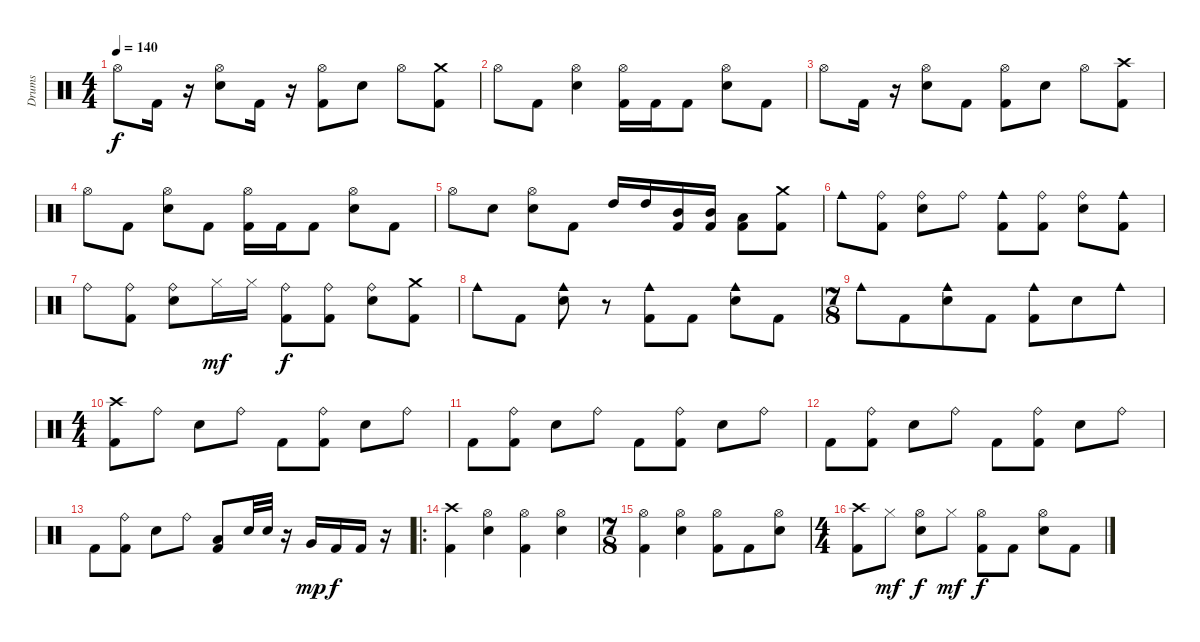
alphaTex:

\track ("Drums" "Drums") {instrument percussion}
\staff {score}
\articulation defaults
\ts (4 4)
\tempo 140
\clef neutral
\ks c "Hi-Hat (open)".8{dy f} "Kick (hit) 2".16
r.16 ("Electric Snare (hit)" "Hi-Hat (open)").8 "Kick (hit) 2".16 r.16 ("Hi-Hat (open)" "Kick (hit) 2").8 "Electric Snare (hit)".8 "Hi-Hat (open)".8 ("Crash medium (hit)" "Kick (hit) 2").8 |
"Hi-Hat (open)".8 "Kick (hit) 2".8 ("Electric Snare (hit)" "Hi-Hat (open)").4 ("Kick (hit) 2" "Hi-Hat (open)").16 "Kick (hit) 2".16 "Kick (hit) 2".8 ("Hi-Hat (open)" "Electric Snare (hit)").8 "Kick (hit) 2".8 |
"Hi-Hat (open)".8 "Kick (hit) 2".16 r.16 ("Electric Snare (hit)" "Hi-Hat (open)").8 "Kick (hit) 2".8 ("Hi-Hat (open)" "Kick (hit) 2").8 "Electric Snare (hit)".8 "Hi-Hat (open)".8 ("Crash high (hit)" "Kick (hit) 2").8 |
"Hi-Hat (open)".8 "Kick (hit) 2".8 ("Electric Snare (hit)" "Hi-Hat (open)").8 "Kick (hit) 2".8 ("Kick (hit) 2" "Hi-Hat (open)").16 "Kick (hit) 2".16 "Kick (hit) 2".8 ("Hi-Hat (open)" "Electric Snare (hit)").8 "Kick (hit) 2".8 |
"Hi-Hat (open)".8 "Electric Snare (hit)".8 ("Electric Snare (hit)" "Hi-Hat (open)").8 "Kick (hit) 2".8 "High Tom (hit)".16 "High Tom (hit)".16 ("Mid Tom (hit)" "Kick (hit) 2").16 ("Mid Tom (hit)" "Kick (hit) 2").16 ("Low Tom (hit)" "Kick (hit) 2").8 ("Crash medium (hit)" "Kick (hit) 2").8 |
"Cowbell medium (hit)".8 ("Kick (hit) 2" "Ride (bell)").8 ("Electric Snare (hit)" "Ride (bell)").8 "Ride (bell)".8 ("Kick (hit) 2" "Cowbell medium (hit)").8 ("Kick (hit) 2" "Ride (bell)").8 ("Electric Snare (hit)" "Ride (bell)").8 ("Kick (hit) 2" "Cowbell medium (hit)").8 |
"Ride (bell)".8 ("Kick (hit) 2" "Ride (bell)").8 ("Electric Snare (hit)" "Ride (bell)").8 "Hi-Hat (closed)".16{dy mf} "Hi-Hat (closed)".16 ("Kick (hit) 2" "Ride (bell)").8{dy f} ("Kick (hit) 2" "Ride (bell)").8 ("Electric Snare (hit)" "Ride (bell)").8 ("Kick (hit) 2" "Crash medium (hit)").8 |
"Cowbell medium (hit)".8 "Kick (hit) 2".8 ("Electric Snare (hit)" "Cowbell medium (hit)").8 r.8 ("Kick (hit) 2" "Cowbell medium (hit)").8 "Kick (hit) 2".8 ("Electric Snare (hit)" "Cowbell medium (hit)").8 "Kick (hit) 2".8 |
\ts (7 8)
"Cowbell medium (hit)".8 "Kick (hit) 2".8 ("Electric Snare (hit)" "Cowbell medium (hit)").8 "Kick (hit) 2".8 ("Kick (hit) 2" "Cowbell medium (hit)").8 "Electric Snare (hit)".8 "Cowbell medium (hit)".8 |
\ts (4 4)
("Kick (hit) 2" "Crash high (hit)").8 "Ride (bell)".8 "Electric Snare (hit)".8 "Ride (bell)".8 "Kick (hit) 2".8 ("Ride (bell)" "Kick (hit) 2").8 "Electric Snare (hit)".8 "Ride (bell)".8 |
"Kick (hit) 2".8 ("Ride (bell)" "Kick (hit) 2").8 "Electric Snare (hit)".8 "Ride (bell)".8 "Kick (hit) 2".8 ("Ride (bell)" "Kick (hit) 2").8 "Electric Snare (hit)".8 "Ride (bell)".8 |
"Kick (hit) 2".8 ("Kick (hit) 2" "Ride (bell)").8 "Electric Snare (hit)".8 "Ride (bell)".8 "Kick (hit) 2".8 ("Ride (bell)" "Kick (hit) 2").8 "Electric Snare (hit)".8 "Ride (bell)".8 |
"Kick (hit) 2".8 ("Kick (hit) 2" "Ride (bell)").8 "Electric Snare (hit)".8 "Ride (bell)".8 ("Low Tom (hit)" "Kick (hit) 2").8 "Electric Snare (hit)".32 "Electric Snare (hit)".32 r.16 "Very Low Tom (hit)".16{dy mp} "Kick (hit) 2".16{dy f} "Kick (hit) 2".16 r.16 |
\ro
("Crash high (hit)" "Kick (hit) 2").4 ("Electric Snare (hit)" "Hi-Hat (open)").4 ("Kick (hit) 2" "Hi-Hat (open)").4 ("Electric Snare (hit)" "Hi-Hat (open)").4 |
\ts (7 8)
("Kick (hit) 2" "Hi-Hat (open)").4 ("Electric Snare (hit)" "Hi-Hat (open)").4 ("Hi-Hat (open)" "Kick (hit) 2").8 "Kick (hit) 2".8 ("Electric Snare (hit)" "Hi-Hat (open)").8 |
\ts (4 4)
("Kick (hit) 2" "Crash high (hit)").8 "Hi-Hat (closed)".8{dy mf} ("Electric Snare (hit)" "Hi-Hat (open)").8{dy f} "Hi-Hat (closed)".8{dy mf} ("Kick (hit) 2" "Hi-Hat (open)").8{dy f} "Kick (hit) 2".8 ("Electric Snare (hit)" "Hi-Hat (open)").8 "Kick (hit) 2".8
